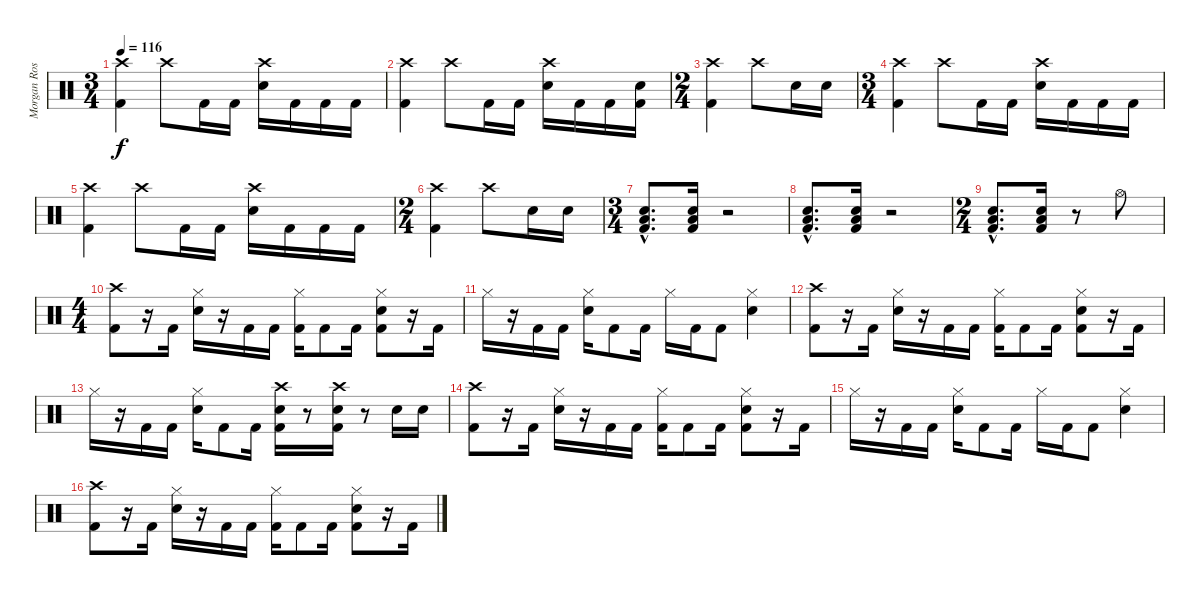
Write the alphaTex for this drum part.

\track ("Morgan Rose - Drums" "Morgan Ros") {instrument percussion}
\staff {score}
\articulation defaults
\ts (3 4)
\tempo 116
\clef neutral
\ks c
("Crash high (hit)" "Kick (hit) 2").4{dy f} "Crash high (hit)".8 "Kick (hit) 2".16 "Kick (hit) 2".16 ("Crash high (hit)" "Electric Snare (hit)").16 "Kick (hit) 2".16 "Kick (hit) 2".16 "Kick (hit) 2".16 |
("Crash high (hit)" "Kick (hit) 2").4 "Crash high (hit)".8 "Kick (hit) 2".16 "Kick (hit) 2".16 ("Crash high (hit)" "Electric Snare (hit)").16 "Kick (hit) 2".16 "Kick (hit) 2".16 ("Electric Snare (hit)" "Kick (hit) 2").16 |
\ts (2 4)
("Crash high (hit)" "Kick (hit) 2").4 "Crash high (hit)".8 "Electric Snare (hit)".16 "Electric Snare (hit)".16 |
\ts (3 4)
("Crash high (hit)" "Kick (hit) 2").4 "Crash high (hit)".8 "Kick (hit) 2".16 "Kick (hit) 2".16 ("Crash high (hit)" "Electric Snare (hit)").16 "Kick (hit) 2".16 "Kick (hit) 2".16 "Kick (hit) 2".16 |
("Crash high (hit)" "Kick (hit) 2").4 "Crash high (hit)".8 "Kick (hit) 2".16 "Kick (hit) 2".16 ("Crash high (hit)" "Electric Snare (hit)").16 "Kick (hit) 2".16 "Kick (hit) 2".16 "Kick (hit) 2".16 |
\ts (2 4)
("Crash high (hit)" "Kick (hit) 2").4 "Crash high (hit)".8 "Electric Snare (hit)".16 "Electric Snare (hit)".16 |
\ts (3 4)
("Electric Snare (hit)"{hac} "Low Tom (hit)"{hac} "Kick (hit) 2"{hac}).8{d} ("Electric Snare (hit)" "Low Tom (hit)" "Kick (hit) 2").16 r.2 |
("Electric Snare (hit)"{hac} "Low Tom (hit)"{hac} "Kick (hit) 2"{hac}).8{d} ("Electric Snare (hit)" "Low Tom (hit)" "Kick (hit) 2").16 r.2 |
\ts (2 4)
("Electric Snare (hit)"{hac} "Low Tom (hit)"{hac} "Kick (hit) 2"{hac}).8{d} ("Electric Snare (hit)" "Low Tom (hit)" "Kick (hit) 2").16 r.8 "Hi-Hat (open)".8 |
\ts (4 4)
("Crash high (hit)" "Kick (hit) 2").8 r.16 "Kick (hit) 2".16 ("Hi-Hat (closed)" "Electric Snare (hit)").16 r.16 "Kick (hit) 2".16 "Kick (hit) 2".16 ("Hi-Hat (closed)" "Kick (hit) 2").16 "Kick (hit) 2".8 "Kick (hit) 2".16 ("Hi-Hat (closed)" "Electric Snare (hit)" "Kick (hit) 2").8 r.16 "Kick (hit) 2".16 |
"Hi-Hat (closed)".16 r.16 "Kick (hit) 2".16 "Kick (hit) 2".16 ("Hi-Hat (closed)" "Electric Snare (hit)").16 "Kick (hit) 2".8 "Kick (hit) 2".16 "Hi-Hat (closed)".16 "Kick (hit) 2".16 "Kick (hit) 2".8 ("Hi-Hat (closed)" "Electric Snare (hit)").4 |
("Crash high (hit)" "Kick (hit) 2").8 r.16 "Kick (hit) 2".16 ("Hi-Hat (closed)" "Electric Snare (hit)").16 r.16 "Kick (hit) 2".16 "Kick (hit) 2".16 ("Hi-Hat (closed)" "Kick (hit) 2").16 "Kick (hit) 2".8 "Kick (hit) 2".16 ("Hi-Hat (closed)" "Electric Snare (hit)" "Kick (hit) 2").8 r.16 "Kick (hit) 2".16 |
"Hi-Hat (closed)".16 r.16 "Kick (hit) 2".16 "Kick (hit) 2".16 ("Hi-Hat (closed)" "Electric Snare (hit)").16 "Kick (hit) 2".8 "Kick (hit) 2".16 ("Crash high (hit)" "Electric Snare (hit)" "Kick (hit) 2").16 r.8 ("Crash high (hit)" "Electric Snare (hit)" "Kick (hit) 2").16 r.8 "Electric Snare (hit)".16 "Electric Snare (hit)".16 |
("Crash high (hit)" "Kick (hit) 2").8 r.16 "Kick (hit) 2".16 ("Hi-Hat (closed)" "Electric Snare (hit)").16 r.16 "Kick (hit) 2".16 "Kick (hit) 2".16 ("Hi-Hat (closed)" "Kick (hit) 2").16 "Kick (hit) 2".8 "Kick (hit) 2".16 ("Hi-Hat (closed)" "Electric Snare (hit)" "Kick (hit) 2").8 r.16 "Kick (hit) 2".16 |
"Hi-Hat (closed)".16 r.16 "Kick (hit) 2".16 "Kick (hit) 2".16 ("Hi-Hat (closed)" "Electric Snare (hit)").16 "Kick (hit) 2".8 "Kick (hit) 2".16 "Hi-Hat (closed)".16 "Kick (hit) 2".16 "Kick (hit) 2".8 ("Hi-Hat (closed)" "Electric Snare (hit)").4 |
("Crash high (hit)" "Kick (hit) 2").8 r.16 "Kick (hit) 2".16 ("Hi-Hat (closed)" "Electric Snare (hit)").16 r.16 "Kick (hit) 2".16 "Kick (hit) 2".16 ("Hi-Hat (closed)" "Kick (hit) 2").16 "Kick (hit) 2".8 "Kick (hit) 2".16 ("Hi-Hat (closed)" "Electric Snare (hit)" "Kick (hit) 2").8 r.16 "Kick (hit) 2".16
